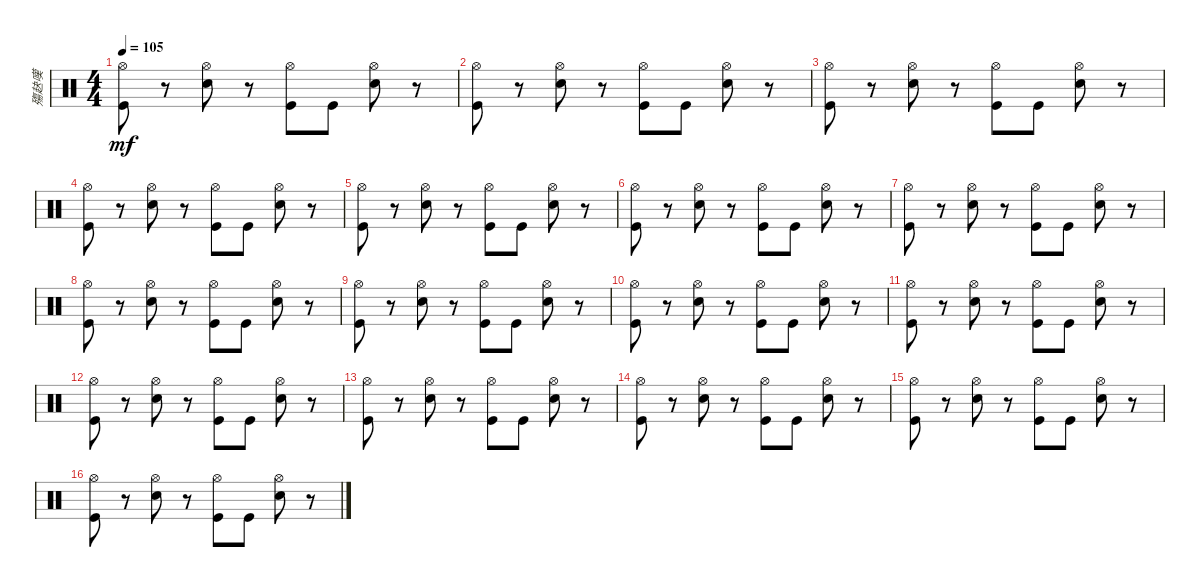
\track ("殤赽嘆" "殤赽嘆") {instrument percussion}
\staff {score}
\articulation defaults
\ts (4 4)
\tempo 105
\clef neutral
\ks c
("Hi-Hat (open)" "Kick (hit)").8{dy mf} r.8 ("Hi-Hat (open)" "Snare (hit) 2").8 r.8 ("Hi-Hat (open)" "Kick (hit)").8 "Kick (hit)".8 ("Hi-Hat (open)" "Snare (hit) 2").8 r.8 |
("Hi-Hat (open)" "Kick (hit)").8 r.8 ("Hi-Hat (open)" "Snare (hit) 2").8 r.8 ("Hi-Hat (open)" "Kick (hit)").8 "Kick (hit)".8 ("Hi-Hat (open)" "Snare (hit) 2").8 r.8 |
("Hi-Hat (open)" "Kick (hit)").8 r.8 ("Hi-Hat (open)" "Snare (hit) 2").8 r.8 ("Hi-Hat (open)" "Kick (hit)").8 "Kick (hit)".8 ("Hi-Hat (open)" "Snare (hit) 2").8 r.8 |
("Hi-Hat (open)" "Kick (hit)").8 r.8 ("Hi-Hat (open)" "Snare (hit) 2").8 r.8 ("Hi-Hat (open)" "Kick (hit)").8 "Kick (hit)".8 ("Hi-Hat (open)" "Snare (hit) 2").8 r.8 |
("Hi-Hat (open)" "Kick (hit)").8 r.8 ("Hi-Hat (open)" "Snare (hit) 2").8 r.8 ("Hi-Hat (open)" "Kick (hit)").8 "Kick (hit)".8 ("Hi-Hat (open)" "Snare (hit) 2").8 r.8 |
("Hi-Hat (open)" "Kick (hit)").8 r.8 ("Hi-Hat (open)" "Snare (hit) 2").8 r.8 ("Hi-Hat (open)" "Kick (hit)").8 "Kick (hit)".8 ("Hi-Hat (open)" "Snare (hit) 2").8 r.8 |
("Hi-Hat (open)" "Kick (hit)").8 r.8 ("Hi-Hat (open)" "Snare (hit) 2").8 r.8 ("Hi-Hat (open)" "Kick (hit)").8 "Kick (hit)".8 ("Hi-Hat (open)" "Snare (hit) 2").8 r.8 |
("Hi-Hat (open)" "Kick (hit)").8 r.8 ("Hi-Hat (open)" "Snare (hit) 2").8 r.8 ("Hi-Hat (open)" "Kick (hit)").8 "Kick (hit)".8 ("Hi-Hat (open)" "Snare (hit) 2").8 r.8 |
("Hi-Hat (open)" "Kick (hit)").8 r.8 ("Hi-Hat (open)" "Snare (hit) 2").8 r.8 ("Hi-Hat (open)" "Kick (hit)").8 "Kick (hit)".8 ("Hi-Hat (open)" "Snare (hit) 2").8 r.8 |
("Hi-Hat (open)" "Kick (hit)").8 r.8 ("Hi-Hat (open)" "Snare (hit) 2").8 r.8 ("Hi-Hat (open)" "Kick (hit)").8 "Kick (hit)".8 ("Hi-Hat (open)" "Snare (hit) 2").8 r.8 |
("Hi-Hat (open)" "Kick (hit)").8 r.8 ("Hi-Hat (open)" "Snare (hit) 2").8 r.8 ("Hi-Hat (open)" "Kick (hit)").8 "Kick (hit)".8 ("Hi-Hat (open)" "Snare (hit) 2").8 r.8 |
("Hi-Hat (open)" "Kick (hit)").8 r.8 ("Hi-Hat (open)" "Snare (hit) 2").8 r.8 ("Hi-Hat (open)" "Kick (hit)").8 "Kick (hit)".8 ("Hi-Hat (open)" "Snare (hit) 2").8 r.8 |
("Hi-Hat (open)" "Kick (hit)").8 r.8 ("Hi-Hat (open)" "Snare (hit) 2").8 r.8 ("Hi-Hat (open)" "Kick (hit)").8 "Kick (hit)".8 ("Hi-Hat (open)" "Snare (hit) 2").8 r.8 |
("Hi-Hat (open)" "Kick (hit)").8 r.8 ("Hi-Hat (open)" "Snare (hit) 2").8 r.8 ("Hi-Hat (open)" "Kick (hit)").8 "Kick (hit)".8 ("Hi-Hat (open)" "Snare (hit) 2").8 r.8 |
("Hi-Hat (open)" "Kick (hit)").8 r.8 ("Hi-Hat (open)" "Snare (hit) 2").8 r.8 ("Hi-Hat (open)" "Kick (hit)").8 "Kick (hit)".8 ("Hi-Hat (open)" "Snare (hit) 2").8 r.8 |
("Hi-Hat (open)" "Kick (hit)").8 r.8 ("Hi-Hat (open)" "Snare (hit) 2").8 r.8 ("Hi-Hat (open)" "Kick (hit)").8 "Kick (hit)".8 ("Hi-Hat (open)" "Snare (hit) 2").8 r.8
